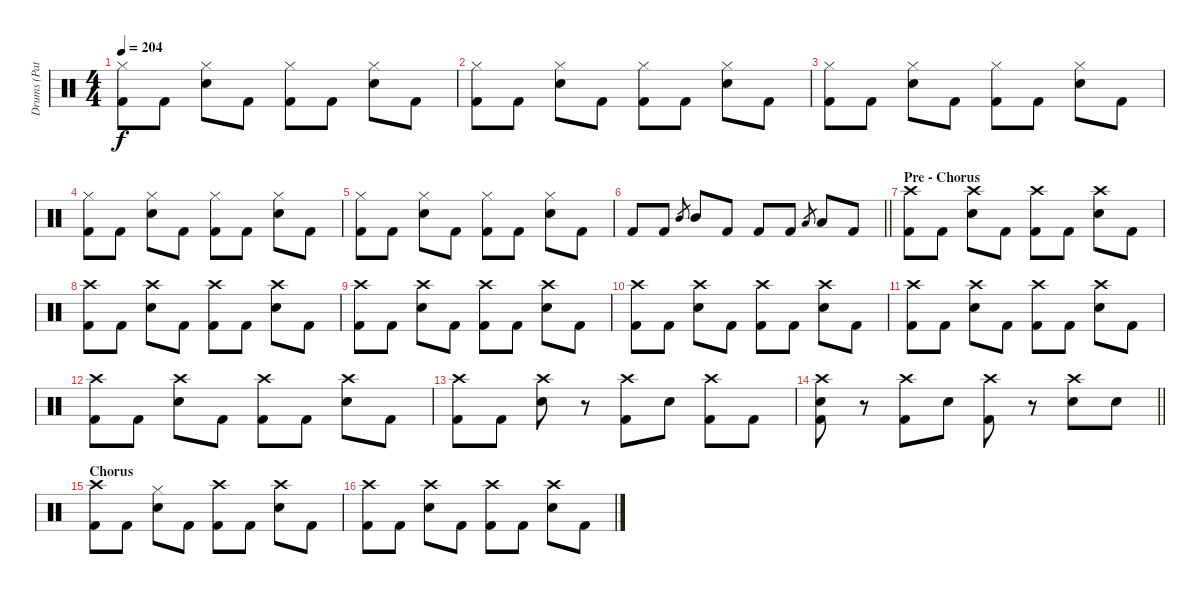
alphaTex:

\track ("Drums (Patrick Johansson)" "Drums (Pat") {instrument percussion}
\staff {score}
\articulation defaults
\ts (4 4)
\tempo 204
\clef neutral
\ks c
("Hi-Hat (closed)" "Kick (hit) 2").8{dy f} "Kick (hit) 2".8 ("Electric Snare (hit)" "Hi-Hat (closed)").8 "Kick (hit) 2".8 ("Hi-Hat (closed)" "Kick (hit) 2").8 "Kick (hit) 2".8 ("Electric Snare (hit)" "Hi-Hat (closed)").8 "Kick (hit) 2".8 |
("Hi-Hat (closed)" "Kick (hit) 2").8 "Kick (hit) 2".8 ("Electric Snare (hit)" "Hi-Hat (closed)").8 "Kick (hit) 2".8 ("Hi-Hat (closed)" "Kick (hit) 2").8 "Kick (hit) 2".8 ("Electric Snare (hit)" "Hi-Hat (closed)").8 "Kick (hit) 2".8 |
("Hi-Hat (closed)" "Kick (hit) 2").8 "Kick (hit) 2".8 ("Electric Snare (hit)" "Hi-Hat (closed)").8 "Kick (hit) 2".8 ("Hi-Hat (closed)" "Kick (hit) 2").8 "Kick (hit) 2".8 ("Electric Snare (hit)" "Hi-Hat (closed)").8 "Kick (hit) 2".8 |
("Hi-Hat (closed)" "Kick (hit) 2").8 "Kick (hit) 2".8 ("Electric Snare (hit)" "Hi-Hat (closed)").8 "Kick (hit) 2".8 ("Hi-Hat (closed)" "Kick (hit) 2").8 "Kick (hit) 2".8 ("Electric Snare (hit)" "Hi-Hat (closed)").8 "Kick (hit) 2".8 |
("Hi-Hat (closed)" "Kick (hit) 2").8 "Kick (hit) 2".8 ("Electric Snare (hit)" "Hi-Hat (closed)").8 "Kick (hit) 2".8 ("Hi-Hat (closed)" "Kick (hit) 2").8 "Kick (hit) 2".8 ("Electric Snare (hit)" "Hi-Hat (closed)").8 "Kick (hit) 2".8 |
\barLineRight lightlight "Kick (hit) 2".8 "Kick (hit) 2".8 "Mid Tom (hit)".8{gr} "Mid Tom (hit)".8 "Kick (hit) 2".8 "Kick (hit) 2".8 "Kick (hit) 2".8 "Low Tom (hit)".8{gr} "Low Tom (hit)".8 "Kick (hit) 2".8
|
\section ("" "Pre - Chorus")
("Crash high (hit)" "Kick (hit) 2").8 "Kick (hit) 2".8 ("Crash high (hit)" "Electric Snare (hit)").8 "Kick (hit) 2".8 ("Crash high (hit)" "Kick (hit) 2").8 "Kick (hit) 2".8 ("Crash high (hit)" "Electric Snare (hit)").8 "Kick (hit) 2".8 |
("Crash high (hit)" "Kick (hit) 2").8 "Kick (hit) 2".8 ("Crash high (hit)" "Electric Snare (hit)").8 "Kick (hit) 2".8 ("Crash high (hit)" "Kick (hit) 2").8 "Kick (hit) 2".8 ("Crash high (hit)" "Electric Snare (hit)").8 "Kick (hit) 2".8 |
("Crash high (hit)" "Kick (hit) 2").8 "Kick (hit) 2".8 ("Crash high (hit)" "Electric Snare (hit)").8 "Kick (hit) 2".8 ("Crash high (hit)" "Kick (hit) 2").8 "Kick (hit) 2".8 ("Crash high (hit)" "Electric Snare (hit)").8 "Kick (hit) 2".8 |
("Crash high (hit)" "Kick (hit) 2").8 "Kick (hit) 2".8 ("Crash high (hit)" "Electric Snare (hit)").8 "Kick (hit) 2".8 ("Crash high (hit)" "Kick (hit) 2").8 "Kick (hit) 2".8 ("Crash high (hit)" "Electric Snare (hit)").8 "Kick (hit) 2".8 |
("Crash high (hit)" "Kick (hit) 2").8 "Kick (hit) 2".8 ("Crash high (hit)" "Electric Snare (hit)").8 "Kick (hit) 2".8 ("Crash high (hit)" "Kick (hit) 2").8 "Kick (hit) 2".8 ("Crash high (hit)" "Electric Snare (hit)").8 "Kick (hit) 2".8 |
("Crash high (hit)" "Kick (hit) 2").8 "Kick (hit) 2".8 ("Crash high (hit)" "Electric Snare (hit)").8 "Kick (hit) 2".8 ("Crash high (hit)" "Kick (hit) 2").8 "Kick (hit) 2".8 ("Crash high (hit)" "Electric Snare (hit)").8 "Kick (hit) 2".8 |
("Crash high (hit)" "Kick (hit) 2").8 "Kick (hit) 2".8 ("Crash high (hit)" "Electric Snare (hit)").8 r.8 ("Crash high (hit)" "Kick (hit) 2").8 "Electric Snare (hit)".8 ("Crash high (hit)" "Kick (hit) 2").8 "Kick (hit) 2".8 |
\barLineRight lightlight
("Crash high (hit)" "Electric Snare (hit)" "Kick (hit) 2").8 r.8 ("Crash high (hit)" "Kick (hit) 2").8 "Electric Snare (hit)".8 ("Crash high (hit)" "Kick (hit) 2").8 r.8 ("Crash high (hit)" "Electric Snare (hit)").8 "Electric Snare (hit)".8 |
\section ("" "Chorus")
("Crash high (hit)" "Kick (hit) 2").8 "Kick (hit) 2".8 ("Electric Snare (hit)" "Hi-Hat (closed)").8 "Kick (hit) 2".8 ("Crash high (hit)" "Kick (hit) 2").8 "Kick (hit) 2".8 ("Crash high (hit)" "Electric Snare (hit)").8 "Kick (hit) 2".8 |
("Crash high (hit)" "Kick (hit) 2").8 "Kick (hit) 2".8 ("Crash high (hit)" "Electric Snare (hit)").8 "Kick (hit) 2".8 ("Crash high (hit)" "Kick (hit) 2").8 "Kick (hit) 2".8 ("Crash high (hit)" "Electric Snare (hit)").8 "Kick (hit) 2".8
